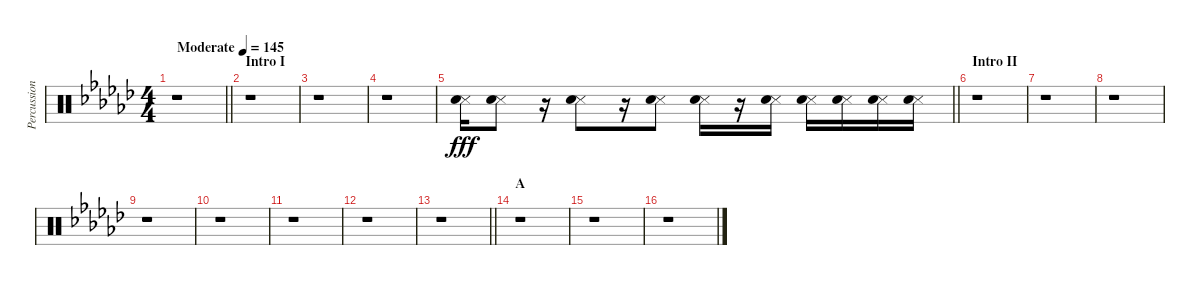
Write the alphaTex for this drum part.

\track ("Percussion" "Percussion") {instrument percussion}
\staff {score}
\articulation defaults
\ts (4 4)
\tempo (145 "Moderate")
\clef neutral
\barLineRight lightlight
\ks gb
r.1{dy fff} |
\section ("" "Intro I")
r.1 |
r.1 |
r.1 |
\barLineRight lightlight
("Snare (side stick) 3" "Hand Clap (hit)").16 ("Snare (side stick) 3" "Hand Clap (hit)").8 r.16 ("Snare (side stick) 3" "Hand Clap (hit)").8 r.16 ("Snare (side stick) 3" "Hand Clap (hit)").8 ("Snare (side stick) 3" "Hand Clap (hit)").16 r.16 ("Snare (side stick) 3" "Hand Clap (hit)").16 ("Snare (side stick) 3" "Hand Clap (hit)").16 ("Snare (side stick) 3" "Hand Clap (hit)").16 ("Snare (side stick) 3" "Hand Clap (hit)").16 ("Snare (side stick) 3" "Hand Clap (hit)").16 |
\section ("" "Intro II")
r.1 |
r.1 |
r.1 |
r.1 |
r.1 |
r.1 |
r.1 |
\barLineRight lightlight
r.1 |
\section ("" "A")
r.1 |
r.1 |
r.1
